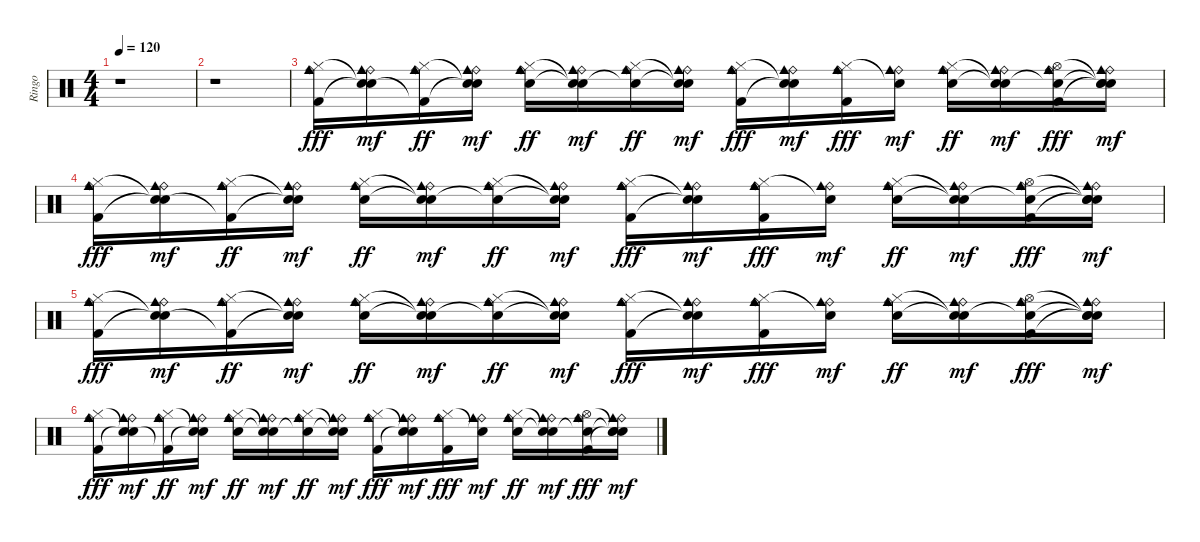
\track ("Ringo" "Ringo") {instrument percussion}
\staff {score}
\articulation defaults
\ts (4 4)
\tempo 120
\clef neutral
\ks c
r.1{dy mf} |
r.1 |
("Ride (bell)" "Cowbell medium (hit)" "Hi-Hat (closed)" "Kick (hit) 2").16{dy fff volume 11} ("Ride (bell)" "Cowbell medium (hit)" "Snare (hit)"{t} "Snare (hit)"{t}).16{dy mf} ("Ride (bell)" "Cowbell medium (hit)" "Hi-Hat (closed)" "Kick (hit) 2"{t}).16{dy ff} ("Ride (bell)" "Cowbell medium (hit)" "Snare (hit)"{t} "Snare (hit)"{t}).16{dy mf} ("Ride (bell)" "Cowbell medium (hit)" "Hi-Hat (closed)" "Electric Snare (hit)").16{dy ff} ("Ride (bell)" "Cowbell medium (hit)" "Snare (hit)"{t} "Snare (hit)"{t}).16{dy mf} ("Ride (bell)" "Cowbell medium (hit)" "Hi-Hat (closed)" "Snare (hit)"{t}).16{dy ff} ("Ride (bell)" "Cowbell medium (hit)" "Snare (hit)"{t} "Snare (hit)"{t}).16{dy mf} ("Ride (bell)" "Cowbell medium (hit)" "Hi-Hat (closed)" "Kick (hit) 2").16{dy fff volume 9} ("Ride (bell)" "Cowbell medium (hit)" "Snare (hit)"{t} "Snare (hit)"{t}).16{dy mf} ("Ride (bell)" "Cowbell medium (hit)" "Hi-Hat (closed)" "Kick (hit) 2").16{dy fff} ("Ride (bell)" "Cowbell medium (hit)" "Snare (hit)"{t}).16{dy mf} ("Ride (bell)" "Cowbell medium (hit)" "Hi-Hat (closed)" "Electric Snare (hit)").16{dy ff} ("Ride (bell)" "Cowbell medium (hit)" "Snare (hit)"{t} "Snare (hit)"{t}).16{dy mf} ("Ride (bell)" "Cowbell medium (hit)" "Hi-Hat (open)" "Snare (hit)"{t} "Kick (hit) 2").16{dy fff} ("Ride (bell)" "Cowbell medium (hit)" "Snare (hit)"{t} "Snare (hit)"{t} "Snare (hit)"{t}).16{dy mf} |
("Ride (bell)" "Cowbell medium (hit)" "Hi-Hat (closed)" "Kick (hit) 2").16{dy fff volume 8} ("Ride (bell)" "Cowbell medium (hit)" "Snare (hit)"{t} "Snare (hit)"{t}).16{dy mf} ("Ride (bell)" "Cowbell medium (hit)" "Hi-Hat (closed)" "Kick (hit) 2"{t}).16{dy ff} ("Ride (bell)" "Cowbell medium (hit)" "Snare (hit)"{t} "Snare (hit)"{t}).16{dy mf} ("Ride (bell)" "Cowbell medium (hit)" "Hi-Hat (closed)" "Electric Snare (hit)").16{dy ff} ("Ride (bell)" "Cowbell medium (hit)" "Snare (hit)"{t} "Snare (hit)"{t}).16{dy mf} ("Ride (bell)" "Cowbell medium (hit)" "Hi-Hat (closed)" "Snare (hit)"{t}).16{dy ff} ("Ride (bell)" "Cowbell medium (hit)" "Snare (hit)"{t} "Snare (hit)"{t}).16{dy mf} ("Ride (bell)" "Cowbell medium (hit)" "Hi-Hat (closed)" "Kick (hit) 2").16{dy fff volume 7} ("Ride (bell)" "Cowbell medium (hit)" "Snare (hit)"{t} "Snare (hit)"{t}).16{dy mf} ("Ride (bell)" "Cowbell medium (hit)" "Hi-Hat (closed)" "Kick (hit) 2").16{dy fff} ("Ride (bell)" "Cowbell medium (hit)" "Snare (hit)"{t}).16{dy mf} ("Ride (bell)" "Cowbell medium (hit)" "Hi-Hat (closed)" "Electric Snare (hit)").16{dy ff} ("Ride (bell)" "Cowbell medium (hit)" "Snare (hit)"{t} "Snare (hit)"{t}).16{dy mf} ("Ride (bell)" "Cowbell medium (hit)" "Hi-Hat (open)" "Snare (hit)"{t} "Kick (hit) 2").16{dy fff} ("Ride (bell)" "Cowbell medium (hit)" "Snare (hit)"{t} "Snare (hit)"{t} "Snare (hit)"{t}).16{dy mf} |
("Ride (bell)" "Cowbell medium (hit)" "Hi-Hat (closed)" "Kick (hit) 2").16{dy fff volume 6} ("Ride (bell)" "Cowbell medium (hit)" "Snare (hit)"{t} "Snare (hit)"{t}).16{dy mf} ("Ride (bell)" "Cowbell medium (hit)" "Hi-Hat (closed)" "Kick (hit) 2"{t}).16{dy ff} ("Ride (bell)" "Cowbell medium (hit)" "Snare (hit)"{t} "Snare (hit)"{t}).16{dy mf} ("Ride (bell)" "Cowbell medium (hit)" "Hi-Hat (closed)" "Electric Snare (hit)").16{dy ff} ("Ride (bell)" "Cowbell medium (hit)" "Snare (hit)"{t} "Snare (hit)"{t}).16{dy mf} ("Ride (bell)" "Cowbell medium (hit)" "Hi-Hat (closed)" "Snare (hit)"{t}).16{dy ff} ("Ride (bell)" "Cowbell medium (hit)" "Snare (hit)"{t} "Snare (hit)"{t}).16{dy mf} ("Ride (bell)" "Cowbell medium (hit)" "Hi-Hat (closed)" "Kick (hit) 2").16{dy fff volume 5} ("Ride (bell)" "Cowbell medium (hit)" "Snare (hit)"{t} "Snare (hit)"{t}).16{dy mf} ("Ride (bell)" "Cowbell medium (hit)" "Hi-Hat (closed)" "Kick (hit) 2").16{dy fff} ("Ride (bell)" "Cowbell medium (hit)" "Snare (hit)"{t}).16{dy mf} ("Ride (bell)" "Cowbell medium (hit)" "Hi-Hat (closed)" "Electric Snare (hit)").16{dy ff} ("Ride (bell)" "Cowbell medium (hit)" "Snare (hit)"{t} "Snare (hit)"{t}).16{dy mf} ("Ride (bell)" "Cowbell medium (hit)" "Hi-Hat (open)" "Snare (hit)"{t} "Kick (hit) 2").16{dy fff} ("Ride (bell)" "Cowbell medium (hit)" "Snare (hit)"{t} "Snare (hit)"{t} "Snare (hit)"{t}).16{dy mf} |
("Ride (bell)" "Cowbell medium (hit)" "Hi-Hat (closed)" "Kick (hit) 2").16{dy fff volume 4} ("Ride (bell)" "Cowbell medium (hit)" "Snare (hit)"{t} "Snare (hit)"{t}).16{dy mf} ("Ride (bell)" "Cowbell medium (hit)" "Hi-Hat (closed)" "Kick (hit) 2"{t}).16{dy ff} ("Ride (bell)" "Cowbell medium (hit)" "Snare (hit)"{t} "Snare (hit)"{t}).16{dy mf} ("Ride (bell)" "Cowbell medium (hit)" "Hi-Hat (closed)" "Electric Snare (hit)").16{dy ff volume 3} ("Ride (bell)" "Cowbell medium (hit)" "Snare (hit)"{t} "Snare (hit)"{t}).16{dy mf} ("Ride (bell)" "Cowbell medium (hit)" "Hi-Hat (closed)" "Snare (hit)"{t}).16{dy ff} ("Ride (bell)" "Cowbell medium (hit)" "Snare (hit)"{t} "Snare (hit)"{t}).16{dy mf} ("Ride (bell)" "Cowbell medium (hit)" "Hi-Hat (closed)" "Kick (hit) 2").16{dy fff volume 2} ("Ride (bell)" "Cowbell medium (hit)" "Snare (hit)"{t} "Snare (hit)"{t}).16{dy mf} ("Ride (bell)" "Cowbell medium (hit)" "Hi-Hat (closed)" "Kick (hit) 2").16{dy fff} ("Ride (bell)" "Cowbell medium (hit)" "Snare (hit)"{t}).16{dy mf} ("Ride (bell)" "Cowbell medium (hit)" "Hi-Hat (closed)" "Electric Snare (hit)").16{dy ff} ("Ride (bell)" "Cowbell medium (hit)" "Snare (hit)"{t} "Snare (hit)"{t}).16{dy mf} ("Ride (bell)" "Cowbell medium (hit)" "Hi-Hat (open)" "Snare (hit)"{t} "Kick (hit) 2").16{dy fff} ("Ride (bell)" "Cowbell medium (hit)" "Snare (hit)"{t} "Snare (hit)"{t} "Snare (hit)"{t}).16{dy mf}
